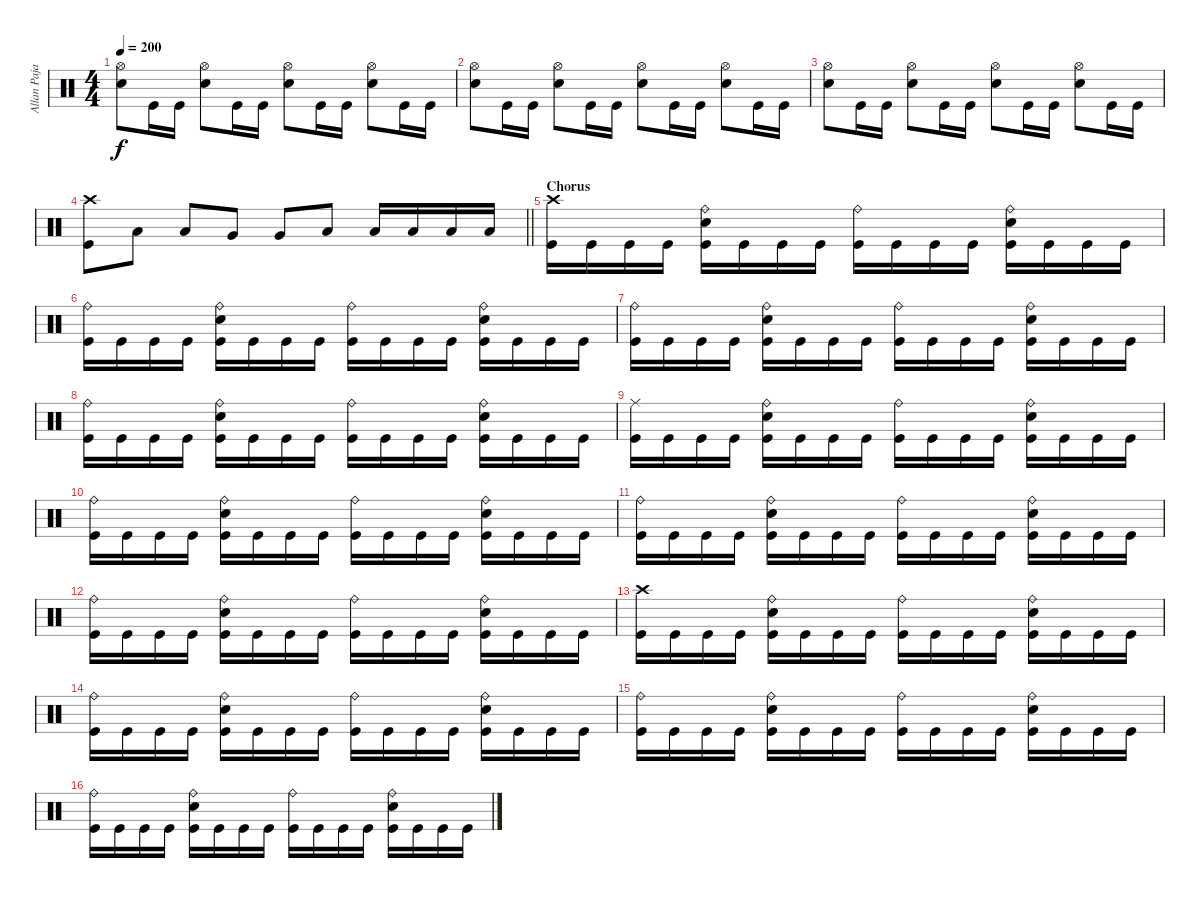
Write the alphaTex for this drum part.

\track ("Allan Pajarin (Drums)" "Allan Paja") {instrument percussion}
\staff {score}
\articulation defaults
\ts (4 4)
\tempo 200
\clef neutral
\ks c
("Hi-Hat (open)" "Electric Snare (hit)").8{dy f} "Kick (hit)".16 "Kick (hit)".16 ("Hi-Hat (open)" "Electric Snare (hit)").8 "Kick (hit)".16 "Kick (hit)".16 ("Hi-Hat (open)" "Electric Snare (hit)").8 "Kick (hit)".16 "Kick (hit)".16 ("Hi-Hat (open)" "Electric Snare (hit)").8 "Kick (hit)".16 "Kick (hit)".16 |
("Hi-Hat (open)" "Electric Snare (hit)").8 "Kick (hit)".16 "Kick (hit)".16 ("Hi-Hat (open)" "Electric Snare (hit)").8 "Kick (hit)".16 "Kick (hit)".16 ("Hi-Hat (open)" "Electric Snare (hit)").8 "Kick (hit)".16 "Kick (hit)".16 ("Hi-Hat (open)" "Electric Snare (hit)").8 "Kick (hit)".16 "Kick (hit)".16 |
("Hi-Hat (open)" "Electric Snare (hit)").8 "Kick (hit)".16 "Kick (hit)".16 ("Hi-Hat (open)" "Electric Snare (hit)").8 "Kick (hit)".16 "Kick (hit)".16 ("Hi-Hat (open)" "Electric Snare (hit)").8 "Kick (hit)".16 "Kick (hit)".16 ("Hi-Hat (open)" "Electric Snare (hit)").8 "Kick (hit)".16 "Kick (hit)".16 |
\barLineRight lightlight
("Kick (hit)" "Crash high (hit)").8 "Low Tom (hit)".8 "Low Tom (hit)".8 "Very Low Tom (hit)".8 "Very Low Tom (hit)".8 "Low Floor Tom (hit)".8 "Low Floor Tom (hit)".16 "Low Floor Tom (hit)".16 "Low Floor Tom (hit)".16 "Low Floor Tom (hit)".16 |
\section ("" "Chorus")
("Crash high (hit)" "Kick (hit)").16 "Kick (hit)".16 "Kick (hit)".16 "Kick (hit)".16 ("Ride (bell)" "Electric Snare (hit)" "Kick (hit)").16 "Kick (hit)".16 "Kick (hit)".16 "Kick (hit)".16 ("Ride (bell)" "Kick (hit)").16 "Kick (hit)".16 "Kick (hit)".16 "Kick (hit)".16 ("Ride (bell)" "Electric Snare (hit)" "Kick (hit)").16 "Kick (hit)".16 "Kick (hit)".16 "Kick (hit)".16 |
("Ride (bell)" "Kick (hit)").16 "Kick (hit)".16 "Kick (hit)".16 "Kick (hit)".16 ("Ride (bell)" "Electric Snare (hit)" "Kick (hit)").16 "Kick (hit)".16 "Kick (hit)".16 "Kick (hit)".16 ("Ride (bell)" "Kick (hit)").16 "Kick (hit)".16 "Kick (hit)".16 "Kick (hit)".16 ("Ride (bell)" "Electric Snare (hit)" "Kick (hit)").16 "Kick (hit)".16 "Kick (hit)".16 "Kick (hit)".16 |
("Ride (bell)" "Kick (hit)").16 "Kick (hit)".16 "Kick (hit)".16 "Kick (hit)".16 ("Ride (bell)" "Electric Snare (hit)" "Kick (hit)").16 "Kick (hit)".16 "Kick (hit)".16 "Kick (hit)".16 ("Ride (bell)" "Kick (hit)").16 "Kick (hit)".16 "Kick (hit)".16 "Kick (hit)".16 ("Ride (bell)" "Electric Snare (hit)" "Kick (hit)").16 "Kick (hit)".16 "Kick (hit)".16 "Kick (hit)".16 |
("Ride (bell)" "Kick (hit)").16 "Kick (hit)".16 "Kick (hit)".16 "Kick (hit)".16 ("Ride (bell)" "Electric Snare (hit)" "Kick (hit)").16 "Kick (hit)".16 "Kick (hit)".16 "Kick (hit)".16 ("Ride (bell)" "Kick (hit)").16 "Kick (hit)".16 "Kick (hit)".16 "Kick (hit)".16 ("Ride (bell)" "Electric Snare (hit)" "Kick (hit)").16 "Kick (hit)".16 "Kick (hit)".16 "Kick (hit)".16 |
("Ride (middle)" "Kick (hit)").16 "Kick (hit)".16 "Kick (hit)".16 "Kick (hit)".16 ("Ride (bell)" "Electric Snare (hit)" "Kick (hit)").16 "Kick (hit)".16 "Kick (hit)".16 "Kick (hit)".16 ("Ride (bell)" "Kick (hit)").16 "Kick (hit)".16 "Kick (hit)".16 "Kick (hit)".16 ("Ride (bell)" "Electric Snare (hit)" "Kick (hit)").16 "Kick (hit)".16 "Kick (hit)".16 "Kick (hit)".16 |
("Ride (bell)" "Kick (hit)").16 "Kick (hit)".16 "Kick (hit)".16 "Kick (hit)".16 ("Ride (bell)" "Electric Snare (hit)" "Kick (hit)").16 "Kick (hit)".16 "Kick (hit)".16 "Kick (hit)".16 ("Ride (bell)" "Kick (hit)").16 "Kick (hit)".16 "Kick (hit)".16 "Kick (hit)".16 ("Ride (bell)" "Electric Snare (hit)" "Kick (hit)").16 "Kick (hit)".16 "Kick (hit)".16 "Kick (hit)".16 |
("Ride (bell)" "Kick (hit)").16 "Kick (hit)".16 "Kick (hit)".16 "Kick (hit)".16 ("Ride (bell)" "Electric Snare (hit)" "Kick (hit)").16 "Kick (hit)".16 "Kick (hit)".16 "Kick (hit)".16 ("Ride (bell)" "Kick (hit)").16 "Kick (hit)".16 "Kick (hit)".16 "Kick (hit)".16 ("Ride (bell)" "Electric Snare (hit)" "Kick (hit)").16 "Kick (hit)".16 "Kick (hit)".16 "Kick (hit)".16 |
("Ride (bell)" "Kick (hit)").16 "Kick (hit)".16 "Kick (hit)".16 "Kick (hit)".16 ("Ride (bell)" "Electric Snare (hit)" "Kick (hit)").16 "Kick (hit)".16 "Kick (hit)".16 "Kick (hit)".16 ("Ride (bell)" "Kick (hit)").16 "Kick (hit)".16 "Kick (hit)".16 "Kick (hit)".16 ("Ride (bell)" "Electric Snare (hit)" "Kick (hit)").16 "Kick (hit)".16 "Kick (hit)".16 "Kick (hit)".16 |
("Crash high (hit)" "Kick (hit)").16 "Kick (hit)".16 "Kick (hit)".16 "Kick (hit)".16 ("Ride (bell)" "Electric Snare (hit)" "Kick (hit)").16 "Kick (hit)".16 "Kick (hit)".16 "Kick (hit)".16 ("Ride (bell)" "Kick (hit)").16 "Kick (hit)".16 "Kick (hit)".16 "Kick (hit)".16 ("Ride (bell)" "Electric Snare (hit)" "Kick (hit)").16 "Kick (hit)".16 "Kick (hit)".16 "Kick (hit)".16 |
("Ride (bell)" "Kick (hit)").16 "Kick (hit)".16 "Kick (hit)".16 "Kick (hit)".16 ("Ride (bell)" "Electric Snare (hit)" "Kick (hit)").16 "Kick (hit)".16 "Kick (hit)".16 "Kick (hit)".16 ("Ride (bell)" "Kick (hit)").16 "Kick (hit)".16 "Kick (hit)".16 "Kick (hit)".16 ("Ride (bell)" "Electric Snare (hit)" "Kick (hit)").16 "Kick (hit)".16 "Kick (hit)".16 "Kick (hit)".16 |
("Ride (bell)" "Kick (hit)").16 "Kick (hit)".16 "Kick (hit)".16 "Kick (hit)".16 ("Ride (bell)" "Electric Snare (hit)" "Kick (hit)").16 "Kick (hit)".16 "Kick (hit)".16 "Kick (hit)".16 ("Ride (bell)" "Kick (hit)").16 "Kick (hit)".16 "Kick (hit)".16 "Kick (hit)".16 ("Ride (bell)" "Electric Snare (hit)" "Kick (hit)").16 "Kick (hit)".16 "Kick (hit)".16 "Kick (hit)".16 |
("Ride (bell)" "Kick (hit)").16 "Kick (hit)".16 "Kick (hit)".16 "Kick (hit)".16 ("Ride (bell)" "Electric Snare (hit)" "Kick (hit)").16 "Kick (hit)".16 "Kick (hit)".16 "Kick (hit)".16 ("Ride (bell)" "Kick (hit)").16 "Kick (hit)".16 "Kick (hit)".16 "Kick (hit)".16 ("Ride (bell)" "Electric Snare (hit)" "Kick (hit)").16 "Kick (hit)".16 "Kick (hit)".16 "Kick (hit)".16
